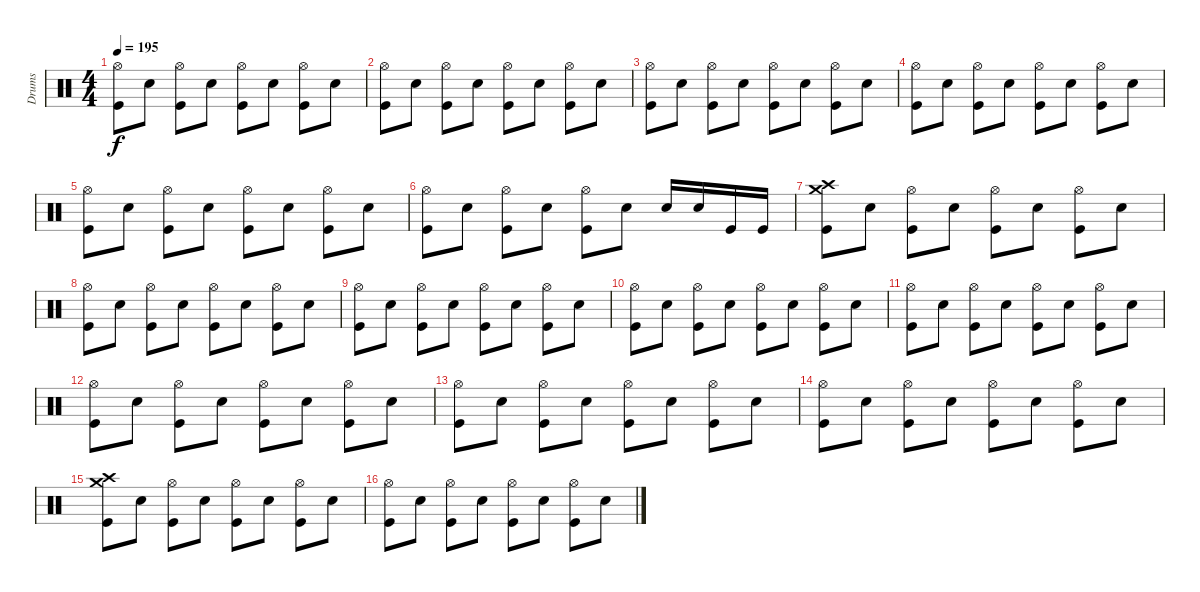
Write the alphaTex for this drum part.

\track ("Drums" "Drums") {instrument percussion}
\staff {score}
\articulation defaults
\ts (4 4)
\tempo 195
\clef neutral
\ks c
("Hi-Hat (open)" "Kick (hit)").8{dy f} "Electric Snare (hit)".8 ("Hi-Hat (open)" "Kick (hit)").8 "Electric Snare (hit)".8 ("Hi-Hat (open)" "Kick (hit)").8 "Electric Snare (hit)".8 ("Hi-Hat (open)" "Kick (hit)").8 "Electric Snare (hit)".8 |
("Hi-Hat (open)" "Kick (hit)").8 "Electric Snare (hit)".8 ("Hi-Hat (open)" "Kick (hit)").8 "Electric Snare (hit)".8 ("Hi-Hat (open)" "Kick (hit)").8 "Electric Snare (hit)".8 ("Hi-Hat (open)" "Kick (hit)").8 "Electric Snare (hit)".8 |
("Hi-Hat (open)" "Kick (hit)").8 "Electric Snare (hit)".8 ("Hi-Hat (open)" "Kick (hit)").8 "Electric Snare (hit)".8 ("Hi-Hat (open)" "Kick (hit)").8 "Electric Snare (hit)".8 ("Hi-Hat (open)" "Kick (hit)").8 "Electric Snare (hit)".8 |
("Hi-Hat (open)" "Kick (hit)").8 "Electric Snare (hit)".8 ("Hi-Hat (open)" "Kick (hit)").8 "Electric Snare (hit)".8 ("Hi-Hat (open)" "Kick (hit)").8 "Electric Snare (hit)".8 ("Hi-Hat (open)" "Kick (hit)").8 "Electric Snare (hit)".8 |
("Hi-Hat (open)" "Kick (hit)").8 "Electric Snare (hit)".8 ("Hi-Hat (open)" "Kick (hit)").8 "Electric Snare (hit)".8 ("Hi-Hat (open)" "Kick (hit)").8 "Electric Snare (hit)".8 ("Hi-Hat (open)" "Kick (hit)").8 "Electric Snare (hit)".8 |
("Hi-Hat (open)" "Kick (hit)").8 "Electric Snare (hit)".8 ("Hi-Hat (open)" "Kick (hit)").8 "Electric Snare (hit)".8 ("Hi-Hat (open)" "Kick (hit)").8 "Electric Snare (hit)".8 "Electric Snare (hit)".16 "Electric Snare (hit)".16 "Kick (hit)".16 "Kick (hit)".16 |
("Crash high (hit)" "Crash medium (hit)" "Kick (hit)").8 "Electric Snare (hit)".8 ("Hi-Hat (open)" "Kick (hit)").8 "Electric Snare (hit)".8 ("Hi-Hat (open)" "Kick (hit)").8 "Electric Snare (hit)".8 ("Hi-Hat (open)" "Kick (hit)").8 "Electric Snare (hit)".8 |
("Hi-Hat (open)" "Kick (hit)").8 "Electric Snare (hit)".8 ("Hi-Hat (open)" "Kick (hit)").8 "Electric Snare (hit)".8 ("Hi-Hat (open)" "Kick (hit)").8 "Electric Snare (hit)".8 ("Hi-Hat (open)" "Kick (hit)").8 "Electric Snare (hit)".8 |
("Hi-Hat (open)" "Kick (hit)").8 "Electric Snare (hit)".8 ("Hi-Hat (open)" "Kick (hit)").8 "Electric Snare (hit)".8 ("Hi-Hat (open)" "Kick (hit)").8 "Electric Snare (hit)".8 ("Hi-Hat (open)" "Kick (hit)").8 "Electric Snare (hit)".8 |
("Hi-Hat (open)" "Kick (hit)").8 "Electric Snare (hit)".8 ("Hi-Hat (open)" "Kick (hit)").8 "Electric Snare (hit)".8 ("Hi-Hat (open)" "Kick (hit)").8 "Electric Snare (hit)".8 ("Hi-Hat (open)" "Kick (hit)").8 "Electric Snare (hit)".8 |
("Hi-Hat (open)" "Kick (hit)").8 "Electric Snare (hit)".8 ("Hi-Hat (open)" "Kick (hit)").8 "Electric Snare (hit)".8 ("Hi-Hat (open)" "Kick (hit)").8 "Electric Snare (hit)".8 ("Hi-Hat (open)" "Kick (hit)").8 "Electric Snare (hit)".8 |
("Hi-Hat (open)" "Kick (hit)").8 "Electric Snare (hit)".8 ("Hi-Hat (open)" "Kick (hit)").8 "Electric Snare (hit)".8 ("Hi-Hat (open)" "Kick (hit)").8 "Electric Snare (hit)".8 ("Hi-Hat (open)" "Kick (hit)").8 "Electric Snare (hit)".8 |
("Hi-Hat (open)" "Kick (hit)").8 "Electric Snare (hit)".8 ("Hi-Hat (open)" "Kick (hit)").8 "Electric Snare (hit)".8 ("Hi-Hat (open)" "Kick (hit)").8 "Electric Snare (hit)".8 ("Hi-Hat (open)" "Kick (hit)").8 "Electric Snare (hit)".8 |
("Hi-Hat (open)" "Kick (hit)").8 "Electric Snare (hit)".8 ("Hi-Hat (open)" "Kick (hit)").8 "Electric Snare (hit)".8 ("Hi-Hat (open)" "Kick (hit)").8 "Electric Snare (hit)".8 ("Hi-Hat (open)" "Kick (hit)").8 "Electric Snare (hit)".8 |
("Crash high (hit)" "Crash medium (hit)" "Kick (hit)").8 "Electric Snare (hit)".8 ("Hi-Hat (open)" "Kick (hit)").8 "Electric Snare (hit)".8 ("Hi-Hat (open)" "Kick (hit)").8 "Electric Snare (hit)".8 ("Hi-Hat (open)" "Kick (hit)").8 "Electric Snare (hit)".8 |
("Hi-Hat (open)" "Kick (hit)").8 "Electric Snare (hit)".8 ("Hi-Hat (open)" "Kick (hit)").8 "Electric Snare (hit)".8 ("Hi-Hat (open)" "Kick (hit)").8 "Electric Snare (hit)".8 ("Hi-Hat (open)" "Kick (hit)").8 "Electric Snare (hit)".8
